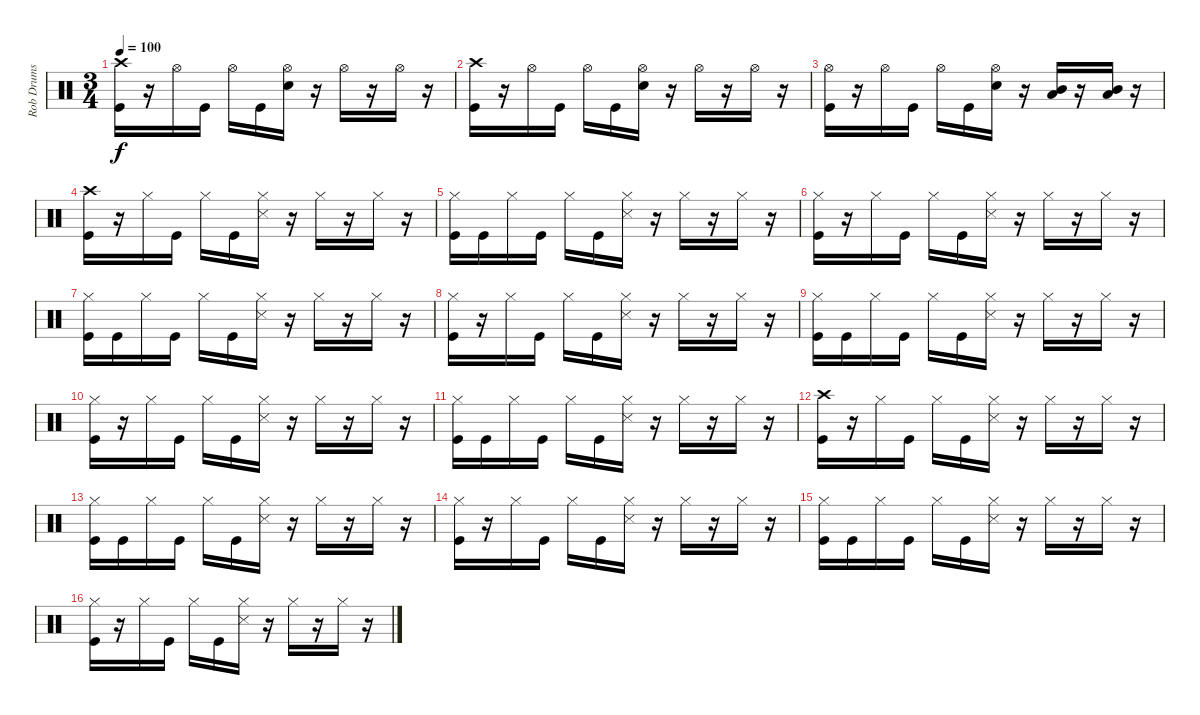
\track ("Rob Drums" "Rob Drums") {instrument percussion}
\staff {score}
\articulation defaults
\ts (3 4)
\tempo 100
\clef neutral
\ks c
("Crash high (hit)" "Kick (hit)").16{dy f} r.16 "Hi-Hat (open)".16 "Kick (hit)".16 "Hi-Hat (open)".16 "Kick (hit)".16 ("Hi-Hat (open)" "Snare (hit) 2").16 r.16 "Hi-Hat (open)".16 r.16 "Hi-Hat (open)".16 r.16 |
("Crash high (hit)" "Kick (hit)").16 r.16 "Hi-Hat (open)".16 "Kick (hit)".16 "Hi-Hat (open)".16 "Kick (hit)".16 ("Hi-Hat (open)" "Snare (hit) 2").16 r.16 "Hi-Hat (open)".16 r.16 "Hi-Hat (open)".16 r.16 |
("Hi-Hat (open)" "Kick (hit)").16 r.16 "Hi-Hat (open)".16 "Kick (hit)".16 "Hi-Hat (open)".16 "Kick (hit)".16 ("Hi-Hat (open)" "Snare (hit) 2").16 r.16 ("Mid Tom (hit)" "Low Tom (hit)").16 r.16 ("Mid Tom (hit)" "Low Tom (hit)").16 r.16 |
("Crash high (hit)" "Kick (hit)").16 r.16 "Hi-Hat (closed)".16 "Kick (hit)".16 "Hi-Hat (closed)".16 "Kick (hit)".16 ("Hi-Hat (closed)" "Snare (side stick) 3").16 r.16 "Hi-Hat (closed)".16 r.16 "Hi-Hat (closed)".16 r.16 |
("Hi-Hat (closed)" "Kick (hit)").16 "Kick (hit)".16 "Hi-Hat (closed)".16 "Kick (hit)".16 "Hi-Hat (closed)".16 "Kick (hit)".16 ("Hi-Hat (closed)" "Snare (side stick) 3").16 r.16 "Hi-Hat (closed)".16 r.16 "Hi-Hat (closed)".16 r.16 |
("Hi-Hat (closed)" "Kick (hit)").16 r.16 "Hi-Hat (closed)".16 "Kick (hit)".16 "Hi-Hat (closed)".16 "Kick (hit)".16 ("Hi-Hat (closed)" "Snare (side stick) 3").16 r.16 "Hi-Hat (closed)".16 r.16 "Hi-Hat (closed)".16 r.16 |
("Hi-Hat (closed)" "Kick (hit)").16 "Kick (hit)".16 "Hi-Hat (closed)".16 "Kick (hit)".16 "Hi-Hat (closed)".16 "Kick (hit)".16 ("Hi-Hat (closed)" "Snare (side stick) 3").16 r.16 "Hi-Hat (closed)".16 r.16 "Hi-Hat (closed)".16 r.16 |
("Hi-Hat (closed)" "Kick (hit)").16 r.16 "Hi-Hat (closed)".16 "Kick (hit)".16 "Hi-Hat (closed)".16 "Kick (hit)".16 ("Hi-Hat (closed)" "Snare (side stick) 3").16 r.16 "Hi-Hat (closed)".16 r.16 "Hi-Hat (closed)".16 r.16 |
("Hi-Hat (closed)" "Kick (hit)").16 "Kick (hit)".16 "Hi-Hat (closed)".16 "Kick (hit)".16 "Hi-Hat (closed)".16 "Kick (hit)".16 ("Hi-Hat (closed)" "Snare (side stick) 3").16 r.16 "Hi-Hat (closed)".16 r.16 "Hi-Hat (closed)".16 r.16 |
("Hi-Hat (closed)" "Kick (hit)").16 r.16 "Hi-Hat (closed)".16 "Kick (hit)".16 "Hi-Hat (closed)".16 "Kick (hit)".16 ("Hi-Hat (closed)" "Snare (side stick) 3").16 r.16 "Hi-Hat (closed)".16 r.16 "Hi-Hat (closed)".16 r.16 |
("Hi-Hat (closed)" "Kick (hit)").16 "Kick (hit)".16 "Hi-Hat (closed)".16 "Kick (hit)".16 "Hi-Hat (closed)".16 "Kick (hit)".16 ("Hi-Hat (closed)" "Snare (side stick) 3").16 r.16 "Hi-Hat (closed)".16 r.16 "Hi-Hat (closed)".16 r.16 |
("Crash high (hit)" "Kick (hit)").16 r.16 "Hi-Hat (closed)".16 "Kick (hit)".16 "Hi-Hat (closed)".16 "Kick (hit)".16 ("Hi-Hat (closed)" "Snare (side stick) 3").16 r.16 "Hi-Hat (closed)".16 r.16 "Hi-Hat (closed)".16 r.16 |
("Hi-Hat (closed)" "Kick (hit)").16 "Kick (hit)".16 "Hi-Hat (closed)".16 "Kick (hit)".16 "Hi-Hat (closed)".16 "Kick (hit)".16 ("Hi-Hat (closed)" "Snare (side stick) 3").16 r.16 "Hi-Hat (closed)".16 r.16 "Hi-Hat (closed)".16 r.16 |
("Hi-Hat (closed)" "Kick (hit)").16 r.16 "Hi-Hat (closed)".16 "Kick (hit)".16 "Hi-Hat (closed)".16 "Kick (hit)".16 ("Hi-Hat (closed)" "Snare (side stick) 3").16 r.16 "Hi-Hat (closed)".16 r.16 "Hi-Hat (closed)".16 r.16 |
("Hi-Hat (closed)" "Kick (hit)").16 "Kick (hit)".16 "Hi-Hat (closed)".16 "Kick (hit)".16 "Hi-Hat (closed)".16 "Kick (hit)".16 ("Hi-Hat (closed)" "Snare (side stick) 3").16 r.16 "Hi-Hat (closed)".16 r.16 "Hi-Hat (closed)".16 r.16 |
("Hi-Hat (closed)" "Kick (hit)").16 r.16 "Hi-Hat (closed)".16 "Kick (hit)".16 "Hi-Hat (closed)".16 "Kick (hit)".16 ("Hi-Hat (closed)" "Snare (side stick) 3").16 r.16 "Hi-Hat (closed)".16 r.16 "Hi-Hat (closed)".16 r.16
